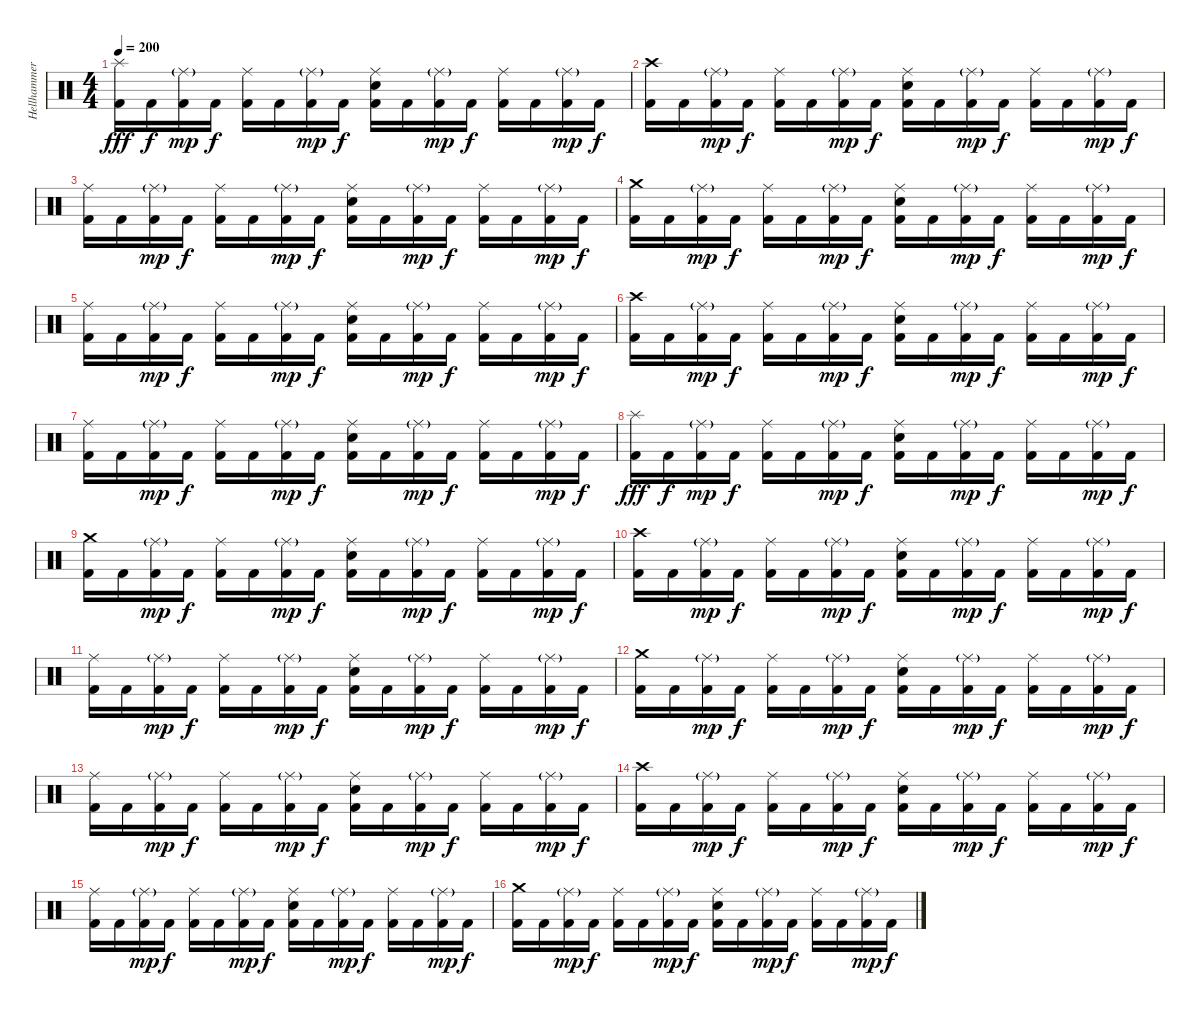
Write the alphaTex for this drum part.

\track ("Hellhammer" "Hellhammer") {instrument percussion}
\staff {score}
\articulation defaults
\ts (4 4)
\tempo 200
\clef neutral
\ks c
("Kick (hit) 2" "Splash (hit)").16{dy fff} "Kick (hit) 2".16{dy f} ("Kick (hit) 2" "Ride (middle)"{g}).16{dy mp} "Kick (hit) 2".16{dy f} ("Kick (hit) 2" "Ride (middle)").16 "Kick (hit) 2".16 ("Kick (hit) 2" "Ride (middle)"{g}).16{dy mp} "Kick (hit) 2".16{dy f} ("Kick (hit) 2" "Electric Snare (hit)" "Ride (middle)").16 "Kick (hit) 2".16 ("Kick (hit) 2" "Ride (middle)"{g}).16{dy mp} "Kick (hit) 2".16{dy f} ("Kick (hit) 2" "Ride (middle)").16 "Kick (hit) 2".16 ("Kick (hit) 2" "Ride (middle)"{g}).16{dy mp} "Kick (hit) 2".16{dy f} |
("Kick (hit) 2" "Crash high (hit)").16 "Kick (hit) 2".16 ("Kick (hit) 2" "Ride (middle)"{g}).16{dy mp} "Kick (hit) 2".16{dy f} ("Kick (hit) 2" "Ride (middle)").16 "Kick (hit) 2".16 ("Kick (hit) 2" "Ride (middle)"{g}).16{dy mp} "Kick (hit) 2".16{dy f} ("Kick (hit) 2" "Electric Snare (hit)" "Ride (middle)").16 "Kick (hit) 2".16 ("Kick (hit) 2" "Ride (middle)"{g}).16{dy mp} "Kick (hit) 2".16{dy f} ("Kick (hit) 2" "Ride (middle)").16 "Kick (hit) 2".16 ("Kick (hit) 2" "Ride (middle)"{g}).16{dy mp} "Kick (hit) 2".16{dy f} |
("Kick (hit) 2" "Ride (middle)").16 "Kick (hit) 2".16 ("Kick (hit) 2" "Ride (middle)"{g}).16{dy mp} "Kick (hit) 2".16{dy f} ("Kick (hit) 2" "Ride (middle)").16 "Kick (hit) 2".16 ("Kick (hit) 2" "Ride (middle)"{g}).16{dy mp} "Kick (hit) 2".16{dy f} ("Kick (hit) 2" "Electric Snare (hit)" "Ride (middle)").16 "Kick (hit) 2".16 ("Kick (hit) 2" "Ride (middle)"{g}).16{dy mp} "Kick (hit) 2".16{dy f} ("Kick (hit) 2" "Ride (middle)").16 "Kick (hit) 2".16 ("Kick (hit) 2" "Ride (middle)"{g}).16{dy mp} "Kick (hit) 2".16{dy f} |
("Kick (hit) 2" "Crash medium (hit)").16 "Kick (hit) 2".16 ("Kick (hit) 2" "Ride (middle)"{g}).16{dy mp} "Kick (hit) 2".16{dy f} ("Kick (hit) 2" "Ride (middle)").16 "Kick (hit) 2".16 ("Kick (hit) 2" "Ride (middle)"{g}).16{dy mp} "Kick (hit) 2".16{dy f} ("Kick (hit) 2" "Electric Snare (hit)" "Ride (middle)").16 "Kick (hit) 2".16 ("Kick (hit) 2" "Ride (middle)"{g}).16{dy mp} "Kick (hit) 2".16{dy f} ("Kick (hit) 2" "Ride (middle)").16 "Kick (hit) 2".16 ("Kick (hit) 2" "Ride (middle)"{g}).16{dy mp} "Kick (hit) 2".16{dy f} |
("Kick (hit) 2" "Ride (middle)").16 "Kick (hit) 2".16 ("Kick (hit) 2" "Ride (middle)"{g}).16{dy mp} "Kick (hit) 2".16{dy f} ("Kick (hit) 2" "Ride (middle)").16 "Kick (hit) 2".16 ("Kick (hit) 2" "Ride (middle)"{g}).16{dy mp} "Kick (hit) 2".16{dy f} ("Kick (hit) 2" "Electric Snare (hit)" "Ride (middle)").16 "Kick (hit) 2".16 ("Kick (hit) 2" "Ride (middle)"{g}).16{dy mp} "Kick (hit) 2".16{dy f} ("Kick (hit) 2" "Ride (middle)").16 "Kick (hit) 2".16 ("Kick (hit) 2" "Ride (middle)"{g}).16{dy mp} "Kick (hit) 2".16{dy f} |
("Kick (hit) 2" "Crash high (hit)").16 "Kick (hit) 2".16 ("Kick (hit) 2" "Ride (middle)"{g}).16{dy mp} "Kick (hit) 2".16{dy f} ("Kick (hit) 2" "Ride (middle)").16 "Kick (hit) 2".16 ("Kick (hit) 2" "Ride (middle)"{g}).16{dy mp} "Kick (hit) 2".16{dy f} ("Kick (hit) 2" "Electric Snare (hit)" "Ride (middle)").16 "Kick (hit) 2".16 ("Kick (hit) 2" "Ride (middle)"{g}).16{dy mp} "Kick (hit) 2".16{dy f} ("Kick (hit) 2" "Ride (middle)").16 "Kick (hit) 2".16 ("Kick (hit) 2" "Ride (middle)"{g}).16{dy mp} "Kick (hit) 2".16{dy f} |
("Kick (hit) 2" "Ride (middle)").16 "Kick (hit) 2".16 ("Kick (hit) 2" "Ride (middle)"{g}).16{dy mp} "Kick (hit) 2".16{dy f} ("Kick (hit) 2" "Ride (middle)").16 "Kick (hit) 2".16 ("Kick (hit) 2" "Ride (middle)"{g}).16{dy mp} "Kick (hit) 2".16{dy f} ("Kick (hit) 2" "Electric Snare (hit)" "Ride (middle)").16 "Kick (hit) 2".16 ("Kick (hit) 2" "Ride (middle)"{g}).16{dy mp} "Kick (hit) 2".16{dy f} ("Kick (hit) 2" "Ride (middle)").16 "Kick (hit) 2".16 ("Kick (hit) 2" "Ride (middle)"{g}).16{dy mp} "Kick (hit) 2".16{dy f} |
("Kick (hit) 2" "Splash (hit)").16{dy fff} "Kick (hit) 2".16{dy f} ("Kick (hit) 2" "Ride (middle)"{g}).16{dy mp} "Kick (hit) 2".16{dy f} ("Kick (hit) 2" "Ride (middle)").16 "Kick (hit) 2".16 ("Kick (hit) 2" "Ride (middle)"{g}).16{dy mp} "Kick (hit) 2".16{dy f} ("Kick (hit) 2" "Electric Snare (hit)" "Ride (middle)").16 "Kick (hit) 2".16 ("Kick (hit) 2" "Ride (middle)"{g}).16{dy mp} "Kick (hit) 2".16{dy f} ("Kick (hit) 2" "Ride (middle)").16 "Kick (hit) 2".16 ("Kick (hit) 2" "Ride (middle)"{g}).16{dy mp} "Kick (hit) 2".16{dy f} |
("Kick (hit) 2" "Crash medium (hit)").16 "Kick (hit) 2".16 ("Kick (hit) 2" "Ride (middle)"{g}).16{dy mp} "Kick (hit) 2".16{dy f} ("Kick (hit) 2" "Ride (middle)").16 "Kick (hit) 2".16 ("Kick (hit) 2" "Ride (middle)"{g}).16{dy mp} "Kick (hit) 2".16{dy f} ("Kick (hit) 2" "Electric Snare (hit)" "Ride (middle)").16 "Kick (hit) 2".16 ("Kick (hit) 2" "Ride (middle)"{g}).16{dy mp} "Kick (hit) 2".16{dy f} ("Kick (hit) 2" "Ride (middle)").16 "Kick (hit) 2".16 ("Kick (hit) 2" "Ride (middle)"{g}).16{dy mp} "Kick (hit) 2".16{dy f} |
("Kick (hit) 2" "Crash high (hit)").16 "Kick (hit) 2".16 ("Kick (hit) 2" "Ride (middle)"{g}).16{dy mp} "Kick (hit) 2".16{dy f} ("Kick (hit) 2" "Ride (middle)").16 "Kick (hit) 2".16 ("Kick (hit) 2" "Ride (middle)"{g}).16{dy mp} "Kick (hit) 2".16{dy f} ("Kick (hit) 2" "Electric Snare (hit)" "Ride (middle)").16 "Kick (hit) 2".16 ("Kick (hit) 2" "Ride (middle)"{g}).16{dy mp} "Kick (hit) 2".16{dy f} ("Kick (hit) 2" "Ride (middle)").16 "Kick (hit) 2".16 ("Kick (hit) 2" "Ride (middle)"{g}).16{dy mp} "Kick (hit) 2".16{dy f} |
("Kick (hit) 2" "Ride (middle)").16 "Kick (hit) 2".16 ("Kick (hit) 2" "Ride (middle)"{g}).16{dy mp} "Kick (hit) 2".16{dy f} ("Kick (hit) 2" "Ride (middle)").16 "Kick (hit) 2".16 ("Kick (hit) 2" "Ride (middle)"{g}).16{dy mp} "Kick (hit) 2".16{dy f} ("Kick (hit) 2" "Electric Snare (hit)" "Ride (middle)").16 "Kick (hit) 2".16 ("Kick (hit) 2" "Ride (middle)"{g}).16{dy mp} "Kick (hit) 2".16{dy f} ("Kick (hit) 2" "Ride (middle)").16 "Kick (hit) 2".16 ("Kick (hit) 2" "Ride (middle)"{g}).16{dy mp} "Kick (hit) 2".16{dy f} |
("Kick (hit) 2" "Crash medium (hit)").16 "Kick (hit) 2".16 ("Kick (hit) 2" "Ride (middle)"{g}).16{dy mp} "Kick (hit) 2".16{dy f} ("Kick (hit) 2" "Ride (middle)").16 "Kick (hit) 2".16 ("Kick (hit) 2" "Ride (middle)"{g}).16{dy mp} "Kick (hit) 2".16{dy f} ("Kick (hit) 2" "Electric Snare (hit)" "Ride (middle)").16 "Kick (hit) 2".16 ("Kick (hit) 2" "Ride (middle)"{g}).16{dy mp} "Kick (hit) 2".16{dy f} ("Kick (hit) 2" "Ride (middle)").16 "Kick (hit) 2".16 ("Kick (hit) 2" "Ride (middle)"{g}).16{dy mp} "Kick (hit) 2".16{dy f} |
("Kick (hit) 2" "Ride (middle)").16 "Kick (hit) 2".16 ("Kick (hit) 2" "Ride (middle)"{g}).16{dy mp} "Kick (hit) 2".16{dy f} ("Kick (hit) 2" "Ride (middle)").16 "Kick (hit) 2".16 ("Kick (hit) 2" "Ride (middle)"{g}).16{dy mp} "Kick (hit) 2".16{dy f} ("Kick (hit) 2" "Electric Snare (hit)" "Ride (middle)").16 "Kick (hit) 2".16 ("Kick (hit) 2" "Ride (middle)"{g}).16{dy mp} "Kick (hit) 2".16{dy f} ("Kick (hit) 2" "Ride (middle)").16 "Kick (hit) 2".16 ("Kick (hit) 2" "Ride (middle)"{g}).16{dy mp} "Kick (hit) 2".16{dy f} |
("Kick (hit) 2" "Crash high (hit)").16 "Kick (hit) 2".16 ("Kick (hit) 2" "Ride (middle)"{g}).16{dy mp} "Kick (hit) 2".16{dy f} ("Kick (hit) 2" "Ride (middle)").16 "Kick (hit) 2".16 ("Kick (hit) 2" "Ride (middle)"{g}).16{dy mp} "Kick (hit) 2".16{dy f} ("Kick (hit) 2" "Electric Snare (hit)" "Ride (middle)").16 "Kick (hit) 2".16 ("Kick (hit) 2" "Ride (middle)"{g}).16{dy mp} "Kick (hit) 2".16{dy f} ("Kick (hit) 2" "Ride (middle)").16 "Kick (hit) 2".16 ("Kick (hit) 2" "Ride (middle)"{g}).16{dy mp} "Kick (hit) 2".16{dy f} |
("Kick (hit) 2" "Ride (middle)").16 "Kick (hit) 2".16 ("Kick (hit) 2" "Ride (middle)"{g}).16{dy mp} "Kick (hit) 2".16{dy f} ("Kick (hit) 2" "Ride (middle)").16 "Kick (hit) 2".16 ("Kick (hit) 2" "Ride (middle)"{g}).16{dy mp} "Kick (hit) 2".16{dy f} ("Kick (hit) 2" "Electric Snare (hit)" "Ride (middle)").16 "Kick (hit) 2".16 ("Kick (hit) 2" "Ride (middle)"{g}).16{dy mp} "Kick (hit) 2".16{dy f} ("Kick (hit) 2" "Ride (middle)").16 "Kick (hit) 2".16 ("Kick (hit) 2" "Ride (middle)"{g}).16{dy mp} "Kick (hit) 2".16{dy f} |
("Kick (hit) 2" "Crash medium (hit)").16 "Kick (hit) 2".16 ("Kick (hit) 2" "Ride (middle)"{g}).16{dy mp} "Kick (hit) 2".16{dy f} ("Kick (hit) 2" "Ride (middle)").16 "Kick (hit) 2".16 ("Kick (hit) 2" "Ride (middle)"{g}).16{dy mp} "Kick (hit) 2".16{dy f} ("Kick (hit) 2" "Electric Snare (hit)" "Ride (middle)").16 "Kick (hit) 2".16 ("Kick (hit) 2" "Ride (middle)"{g}).16{dy mp} "Kick (hit) 2".16{dy f} ("Kick (hit) 2" "Ride (middle)").16 "Kick (hit) 2".16 ("Kick (hit) 2" "Ride (middle)"{g}).16{dy mp} "Kick (hit) 2".16{dy f}
